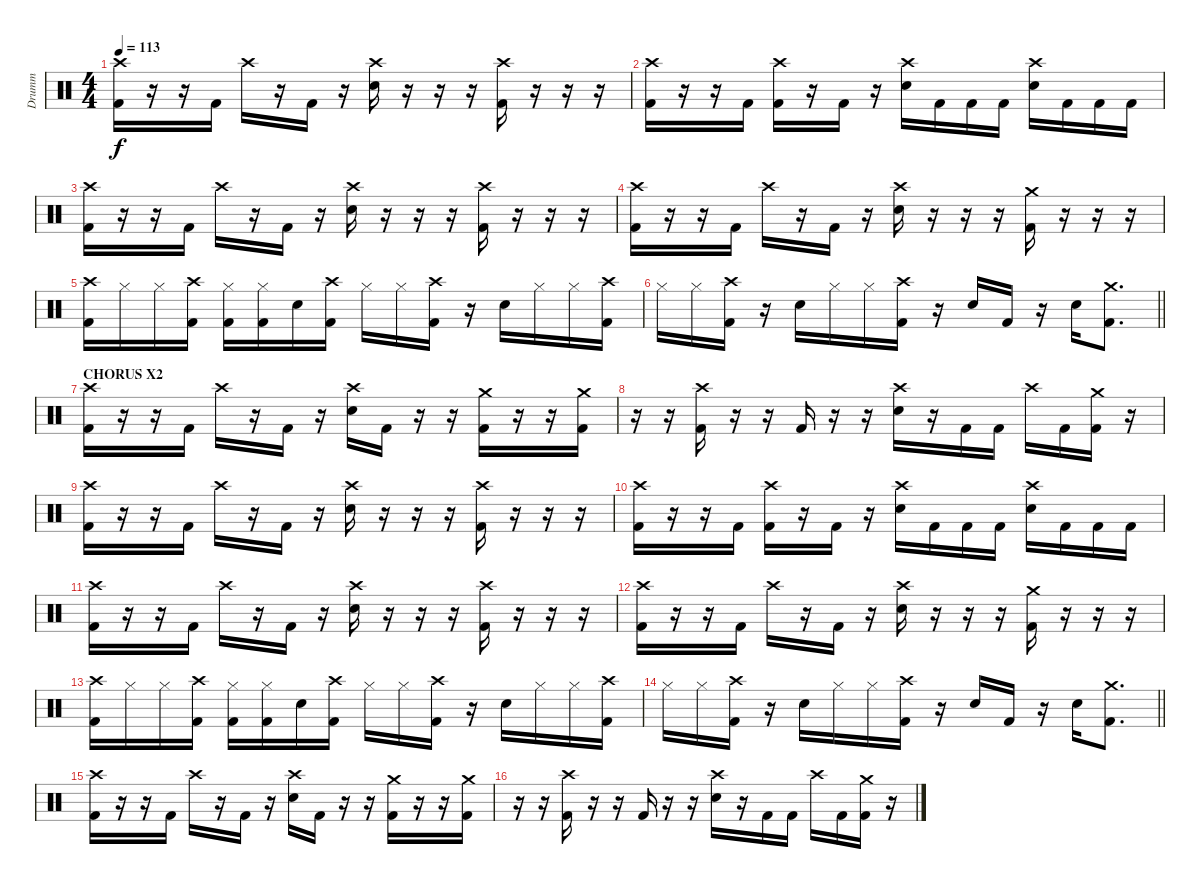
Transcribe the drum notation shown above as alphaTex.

\track ("Drumm" "Drumm") {instrument percussion}
\staff {score}
\articulation defaults
\ts (4 4)
\tempo 113
\clef neutral
\ks c
("Crash high (hit)" "Kick (hit) 2").16{dy f} r.16 r.16 "Kick (hit) 2".16 "Crash high (hit)".16 r.16 "Kick (hit) 2".16 r.16 ("Crash high (hit)" "Electric Snare (hit)").16 r.16 r.16 r.16 ("Crash high (hit)" "Kick (hit) 2").16 r.16 r.16 r.16 |
("Crash high (hit)" "Kick (hit) 2").16 r.16 r.16 "Kick (hit) 2".16 ("Crash high (hit)" "Kick (hit) 2").16 r.16 "Kick (hit) 2".16 r.16 ("Crash high (hit)" "Electric Snare (hit)").16 "Kick (hit) 2".16 "Kick (hit) 2".16 "Kick (hit) 2".16 ("Crash high (hit)" "Electric Snare (hit)").16 "Kick (hit) 2".16 "Kick (hit) 2".16 "Kick (hit) 2".16 |
("Crash high (hit)" "Kick (hit) 2").16 r.16 r.16 "Kick (hit) 2".16 "Crash high (hit)".16 r.16 "Kick (hit) 2".16 r.16 ("Crash high (hit)" "Electric Snare (hit)").16 r.16 r.16 r.16 ("Crash high (hit)" "Kick (hit) 2").16 r.16 r.16 r.16 |
("Crash high (hit)" "Kick (hit) 2").16 r.16 r.16 "Kick (hit) 2".16 "Crash high (hit)".16 r.16 "Kick (hit) 2".16 r.16 ("Crash high (hit)" "Electric Snare (hit)").16 r.16 r.16 r.16 ("Crash medium (hit)" "Kick (hit) 2").16 r.16 r.16 r.16 |
("Crash high (hit)" "Kick (hit) 2").16 "Hi-Hat (closed)".16 "Hi-Hat (closed)".16 ("Crash high (hit)" "Kick (hit) 2").16 ("Hi-Hat (closed)" "Kick (hit) 2").16 ("Hi-Hat (closed)" "Kick (hit) 2").16 "Electric Snare (hit)".16 ("Crash high (hit)" "Kick (hit) 2").16 "Hi-Hat (closed)".16 "Hi-Hat (closed)".16 ("Crash high (hit)" "Kick (hit) 2").16 r.16 "Electric Snare (hit)".16 "Hi-Hat (closed)".16 "Hi-Hat (closed)".16 ("Crash high (hit)" "Kick (hit) 2").16 |
\barLineRight lightlight "Hi-Hat (closed)".16 "Hi-Hat (closed)".16
("Crash high (hit)" "Kick (hit) 2").16 r.16 "Electric Snare (hit)".16 "Hi-Hat (closed)".16 "Hi-Hat (closed)".16 ("Crash high (hit)" "Kick (hit) 2").16 r.16 "Electric Snare (hit)".16 "Kick (hit) 2".16 r.16 "Electric Snare (hit)".16 ("Crash medium (hit)" "Kick (hit) 2").8{d} |
\section ("" "CHORUS X2")
("Crash high (hit)" "Kick (hit) 2").16 r.16 r.16 "Kick (hit) 2".16 "Crash high (hit)".16 r.16 "Kick (hit) 2".16 r.16 ("Crash high (hit)" "Electric Snare (hit)").16 "Kick (hit) 2".16 r.16 r.16 ("Crash medium (hit)" "Kick (hit) 2").16 r.16 r.16 ("Crash medium (hit)" "Kick (hit) 2").16 |
r.16 r.16 ("Crash high (hit)" "Kick (hit) 2").16 r.16 r.16 "Kick (hit) 2".16 r.16 r.16 ("Crash high (hit)" "Electric Snare (hit)").16 r.16 "Kick (hit) 2".16 "Kick (hit) 2".16 "Crash high (hit)".16 "Kick (hit) 2".16 ("Crash medium (hit)" "Kick (hit) 2").16 r.16 |
("Crash high (hit)" "Kick (hit) 2").16 r.16 r.16 "Kick (hit) 2".16 "Crash high (hit)".16 r.16 "Kick (hit) 2".16 r.16 ("Crash high (hit)" "Electric Snare (hit)").16 r.16 r.16 r.16 ("Crash high (hit)" "Kick (hit) 2").16 r.16 r.16 r.16 |
("Crash high (hit)" "Kick (hit) 2").16 r.16 r.16 "Kick (hit) 2".16 ("Crash high (hit)" "Kick (hit) 2").16 r.16 "Kick (hit) 2".16 r.16 ("Crash high (hit)" "Electric Snare (hit)").16 "Kick (hit) 2".16 "Kick (hit) 2".16 "Kick (hit) 2".16 ("Crash high (hit)" "Electric Snare (hit)").16 "Kick (hit) 2".16 "Kick (hit) 2".16 "Kick (hit) 2".16 |
("Crash high (hit)" "Kick (hit) 2").16 r.16 r.16 "Kick (hit) 2".16 "Crash high (hit)".16 r.16 "Kick (hit) 2".16 r.16 ("Crash high (hit)" "Electric Snare (hit)").16 r.16 r.16 r.16 ("Crash high (hit)" "Kick (hit) 2").16 r.16 r.16 r.16 |
("Crash high (hit)" "Kick (hit) 2").16 r.16 r.16 "Kick (hit) 2".16 "Crash high (hit)".16 r.16 "Kick (hit) 2".16 r.16 ("Crash high (hit)" "Electric Snare (hit)").16 r.16 r.16 r.16 ("Crash medium (hit)" "Kick (hit) 2").16 r.16 r.16 r.16 |
("Crash high (hit)" "Kick (hit) 2").16 "Hi-Hat (closed)".16 "Hi-Hat (closed)".16 ("Crash high (hit)" "Kick (hit) 2").16 ("Hi-Hat (closed)" "Kick (hit) 2").16 ("Hi-Hat (closed)" "Kick (hit) 2").16 "Electric Snare (hit)".16 ("Crash high (hit)" "Kick (hit) 2").16 "Hi-Hat (closed)".16 "Hi-Hat (closed)".16 ("Crash high (hit)" "Kick (hit) 2").16 r.16 "Electric Snare (hit)".16 "Hi-Hat (closed)".16 "Hi-Hat (closed)".16 ("Crash high (hit)" "Kick (hit) 2").16 |
\barLineRight lightlight "Hi-Hat (closed)".16 "Hi-Hat (closed)".16
("Crash high (hit)" "Kick (hit) 2").16 r.16 "Electric Snare (hit)".16 "Hi-Hat (closed)".16 "Hi-Hat (closed)".16 ("Crash high (hit)" "Kick (hit) 2").16 r.16 "Electric Snare (hit)".16 "Kick (hit) 2".16 r.16 "Electric Snare (hit)".16 ("Crash medium (hit)" "Kick (hit) 2").8{d} |
("Crash high (hit)" "Kick (hit) 2").16 r.16 r.16 "Kick (hit) 2".16 "Crash high (hit)".16 r.16 "Kick (hit) 2".16 r.16 ("Crash high (hit)" "Electric Snare (hit)").16 "Kick (hit) 2".16 r.16 r.16 ("Crash medium (hit)" "Kick (hit) 2").16 r.16 r.16 ("Crash medium (hit)" "Kick (hit) 2").16 |
r.16 r.16 ("Crash high (hit)" "Kick (hit) 2").16 r.16 r.16 "Kick (hit) 2".16 r.16 r.16 ("Crash high (hit)" "Electric Snare (hit)").16 r.16 "Kick (hit) 2".16 "Kick (hit) 2".16 "Crash high (hit)".16 "Kick (hit) 2".16 ("Crash medium (hit)" "Kick (hit) 2").16 r.16
